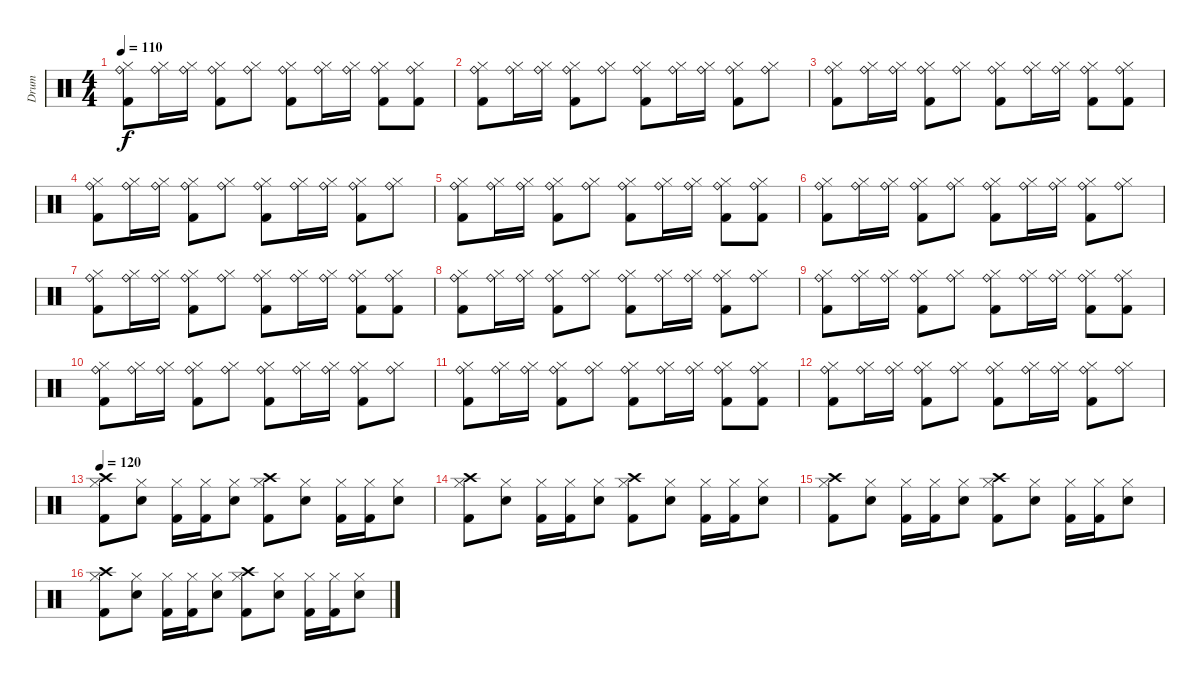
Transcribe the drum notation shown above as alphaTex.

\track ("Drum" "Drum") {instrument percussion}
\staff {score}
\articulation defaults
\ts (4 4)
\tempo 110
\clef neutral
\ks c
("Ride (bell)" "Hi-Hat (closed)" "Kick (hit) 2").8{dy f} ("Ride (bell)" "Hi-Hat (closed)").16 ("Ride (bell)" "Hi-Hat (closed)").16 ("Ride (bell)" "Hi-Hat (closed)" "Kick (hit) 2").8 ("Ride (bell)" "Hi-Hat (closed)").8 ("Ride (bell)" "Hi-Hat (closed)" "Kick (hit) 2").8 ("Ride (bell)" "Hi-Hat (closed)").16 ("Ride (bell)" "Hi-Hat (closed)").16 ("Ride (bell)" "Hi-Hat (closed)" "Kick (hit) 2").8 ("Ride (bell)" "Hi-Hat (closed)" "Kick (hit) 2").8 |
("Ride (bell)" "Hi-Hat (closed)" "Kick (hit) 2").8 ("Ride (bell)" "Hi-Hat (closed)").16 ("Ride (bell)" "Hi-Hat (closed)").16 ("Ride (bell)" "Hi-Hat (closed)" "Kick (hit) 2").8 ("Ride (bell)" "Hi-Hat (closed)").8 ("Ride (bell)" "Hi-Hat (closed)" "Kick (hit) 2").8 ("Ride (bell)" "Hi-Hat (closed)").16 ("Ride (bell)" "Hi-Hat (closed)").16 ("Ride (bell)" "Hi-Hat (closed)" "Kick (hit) 2").8 ("Ride (bell)" "Hi-Hat (closed)").8 |
("Ride (bell)" "Hi-Hat (closed)" "Kick (hit) 2").8 ("Ride (bell)" "Hi-Hat (closed)").16 ("Ride (bell)" "Hi-Hat (closed)").16 ("Ride (bell)" "Hi-Hat (closed)" "Kick (hit) 2").8 ("Ride (bell)" "Hi-Hat (closed)").8 ("Ride (bell)" "Hi-Hat (closed)" "Kick (hit) 2").8 ("Ride (bell)" "Hi-Hat (closed)").16 ("Ride (bell)" "Hi-Hat (closed)").16 ("Ride (bell)" "Hi-Hat (closed)" "Kick (hit) 2").8 ("Ride (bell)" "Hi-Hat (closed)" "Kick (hit) 2").8 |
("Ride (bell)" "Hi-Hat (closed)" "Kick (hit) 2").8 ("Ride (bell)" "Hi-Hat (closed)").16 ("Ride (bell)" "Hi-Hat (closed)").16 ("Ride (bell)" "Hi-Hat (closed)" "Kick (hit) 2").8 ("Ride (bell)" "Hi-Hat (closed)").8 ("Ride (bell)" "Hi-Hat (closed)" "Kick (hit) 2").8 ("Ride (bell)" "Hi-Hat (closed)").16 ("Ride (bell)" "Hi-Hat (closed)").16 ("Ride (bell)" "Hi-Hat (closed)" "Kick (hit) 2").8 ("Ride (bell)" "Hi-Hat (closed)").8 |
("Ride (bell)" "Hi-Hat (closed)" "Kick (hit) 2").8 ("Ride (bell)" "Hi-Hat (closed)").16 ("Ride (bell)" "Hi-Hat (closed)").16 ("Ride (bell)" "Hi-Hat (closed)" "Kick (hit) 2").8 ("Ride (bell)" "Hi-Hat (closed)").8 ("Ride (bell)" "Hi-Hat (closed)" "Kick (hit) 2").8 ("Ride (bell)" "Hi-Hat (closed)").16 ("Ride (bell)" "Hi-Hat (closed)").16 ("Ride (bell)" "Hi-Hat (closed)" "Kick (hit) 2").8 ("Ride (bell)" "Hi-Hat (closed)" "Kick (hit) 2").8 |
("Ride (bell)" "Hi-Hat (closed)" "Kick (hit) 2").8 ("Ride (bell)" "Hi-Hat (closed)").16 ("Ride (bell)" "Hi-Hat (closed)").16 ("Ride (bell)" "Hi-Hat (closed)" "Kick (hit) 2").8 ("Ride (bell)" "Hi-Hat (closed)").8 ("Ride (bell)" "Hi-Hat (closed)" "Kick (hit) 2").8 ("Ride (bell)" "Hi-Hat (closed)").16 ("Ride (bell)" "Hi-Hat (closed)").16 ("Ride (bell)" "Hi-Hat (closed)" "Kick (hit) 2").8 ("Ride (bell)" "Hi-Hat (closed)").8 |
("Ride (bell)" "Hi-Hat (closed)" "Kick (hit) 2").8 ("Ride (bell)" "Hi-Hat (closed)").16 ("Ride (bell)" "Hi-Hat (closed)").16 ("Ride (bell)" "Hi-Hat (closed)" "Kick (hit) 2").8 ("Ride (bell)" "Hi-Hat (closed)").8 ("Ride (bell)" "Hi-Hat (closed)" "Kick (hit) 2").8 ("Ride (bell)" "Hi-Hat (closed)").16 ("Ride (bell)" "Hi-Hat (closed)").16 ("Ride (bell)" "Hi-Hat (closed)" "Kick (hit) 2").8 ("Ride (bell)" "Hi-Hat (closed)" "Kick (hit) 2").8 |
("Ride (bell)" "Hi-Hat (closed)" "Kick (hit) 2").8 ("Ride (bell)" "Hi-Hat (closed)").16 ("Ride (bell)" "Hi-Hat (closed)").16 ("Ride (bell)" "Hi-Hat (closed)" "Kick (hit) 2").8 ("Ride (bell)" "Hi-Hat (closed)").8 ("Ride (bell)" "Hi-Hat (closed)" "Kick (hit) 2").8 ("Ride (bell)" "Hi-Hat (closed)").16 ("Ride (bell)" "Hi-Hat (closed)").16 ("Ride (bell)" "Hi-Hat (closed)" "Kick (hit) 2").8 ("Ride (bell)" "Hi-Hat (closed)").8 |
("Ride (bell)" "Hi-Hat (closed)" "Kick (hit) 2").8 ("Ride (bell)" "Hi-Hat (closed)").16 ("Ride (bell)" "Hi-Hat (closed)").16 ("Ride (bell)" "Hi-Hat (closed)" "Kick (hit) 2").8 ("Ride (bell)" "Hi-Hat (closed)").8 ("Ride (bell)" "Hi-Hat (closed)" "Kick (hit) 2").8 ("Ride (bell)" "Hi-Hat (closed)").16 ("Ride (bell)" "Hi-Hat (closed)").16 ("Ride (bell)" "Hi-Hat (closed)" "Kick (hit) 2").8 ("Ride (bell)" "Hi-Hat (closed)" "Kick (hit) 2").8 |
("Ride (bell)" "Hi-Hat (closed)" "Kick (hit) 2").8 ("Ride (bell)" "Hi-Hat (closed)").16 ("Ride (bell)" "Hi-Hat (closed)").16 ("Ride (bell)" "Hi-Hat (closed)" "Kick (hit) 2").8 ("Ride (bell)" "Hi-Hat (closed)").8 ("Ride (bell)" "Hi-Hat (closed)" "Kick (hit) 2").8 ("Ride (bell)" "Hi-Hat (closed)").16 ("Ride (bell)" "Hi-Hat (closed)").16 ("Ride (bell)" "Hi-Hat (closed)" "Kick (hit) 2").8 ("Ride (bell)" "Hi-Hat (closed)").8 |
("Ride (bell)" "Hi-Hat (closed)" "Kick (hit) 2").8 ("Ride (bell)" "Hi-Hat (closed)").16 ("Ride (bell)" "Hi-Hat (closed)").16 ("Ride (bell)" "Hi-Hat (closed)" "Kick (hit) 2").8 ("Ride (bell)" "Hi-Hat (closed)").8 ("Ride (bell)" "Hi-Hat (closed)" "Kick (hit) 2").8 ("Ride (bell)" "Hi-Hat (closed)").16 ("Ride (bell)" "Hi-Hat (closed)").16 ("Ride (bell)" "Hi-Hat (closed)" "Kick (hit) 2").8 ("Ride (bell)" "Hi-Hat (closed)" "Kick (hit) 2").8 |
("Ride (bell)" "Hi-Hat (closed)" "Kick (hit) 2").8 ("Ride (bell)" "Hi-Hat (closed)").16 ("Ride (bell)" "Hi-Hat (closed)").16 ("Ride (bell)" "Hi-Hat (closed)" "Kick (hit) 2").8 ("Ride (bell)" "Hi-Hat (closed)").8 ("Ride (bell)" "Hi-Hat (closed)" "Kick (hit) 2").8 ("Ride (bell)" "Hi-Hat (closed)").16 ("Ride (bell)" "Hi-Hat (closed)").16 ("Ride (bell)" "Hi-Hat (closed)" "Kick (hit) 2").8 ("Ride (bell)" "Hi-Hat (closed)").8 |
\tempo 120
("Kick (hit) 2" "Crash high (hit)" "Hi-Hat (closed)").8 ("Electric Snare (hit)" "Hi-Hat (closed)").8 ("Kick (hit) 2" "Hi-Hat (closed)").16 ("Kick (hit) 2" "Hi-Hat (closed)").16 ("Electric Snare (hit)" "Hi-Hat (closed)").8 ("Kick (hit) 2" "Crash high (hit)" "Hi-Hat (closed)").8 ("Electric Snare (hit)" "Hi-Hat (closed)").8 ("Kick (hit) 2" "Hi-Hat (closed)").16 ("Kick (hit) 2" "Hi-Hat (closed)").16 ("Electric Snare (hit)" "Hi-Hat (closed)").8 |
("Kick (hit) 2" "Crash high (hit)" "Hi-Hat (closed)").8 ("Electric Snare (hit)" "Hi-Hat (closed)").8 ("Kick (hit) 2" "Hi-Hat (closed)").16 ("Kick (hit) 2" "Hi-Hat (closed)").16 ("Electric Snare (hit)" "Hi-Hat (closed)").8 ("Kick (hit) 2" "Crash high (hit)" "Hi-Hat (closed)").8 ("Electric Snare (hit)" "Hi-Hat (closed)").8 ("Kick (hit) 2" "Hi-Hat (closed)").16 ("Kick (hit) 2" "Hi-Hat (closed)").16 ("Electric Snare (hit)" "Hi-Hat (closed)").8 |
("Kick (hit) 2" "Crash high (hit)" "Hi-Hat (closed)").8 ("Electric Snare (hit)" "Hi-Hat (closed)").8 ("Kick (hit) 2" "Hi-Hat (closed)").16 ("Kick (hit) 2" "Hi-Hat (closed)").16 ("Electric Snare (hit)" "Hi-Hat (closed)").8 ("Kick (hit) 2" "Crash high (hit)" "Hi-Hat (closed)").8 ("Electric Snare (hit)" "Hi-Hat (closed)").8 ("Kick (hit) 2" "Hi-Hat (closed)").16 ("Kick (hit) 2" "Hi-Hat (closed)").16 ("Electric Snare (hit)" "Hi-Hat (closed)").8 |
("Kick (hit) 2" "Crash high (hit)" "Hi-Hat (closed)").8 ("Electric Snare (hit)" "Hi-Hat (closed)").8 ("Kick (hit) 2" "Hi-Hat (closed)").16 ("Kick (hit) 2" "Hi-Hat (closed)").16 ("Electric Snare (hit)" "Hi-Hat (closed)").8 ("Kick (hit) 2" "Crash high (hit)" "Hi-Hat (closed)").8 ("Electric Snare (hit)" "Hi-Hat (closed)").8 ("Kick (hit) 2" "Hi-Hat (closed)").16 ("Kick (hit) 2" "Hi-Hat (closed)").16 ("Electric Snare (hit)" "Hi-Hat (closed)").8
